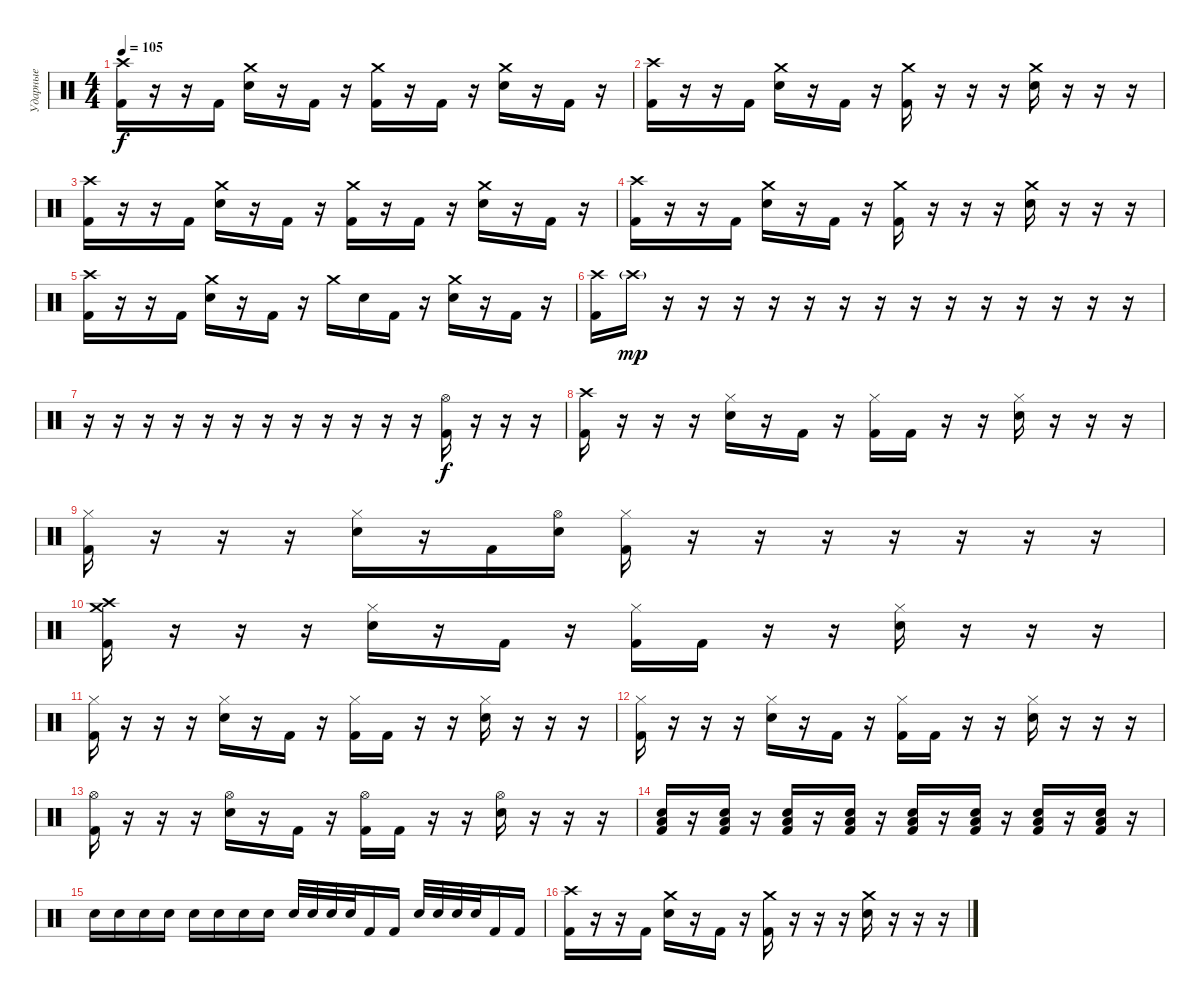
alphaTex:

\track ("Ударные" "Ударные") {instrument percussion}
\staff {score}
\articulation defaults
\ts (4 4)
\tempo 105
\clef neutral
\ks c
("Crash high (hit)" "Kick (hit) 2").16{dy f} r.16 r.16 "Kick (hit) 2".16 ("Crash medium (hit)" "Electric Snare (hit)").16 r.16 "Kick (hit) 2".16 r.16 ("Crash medium (hit)" "Kick (hit) 2").16 r.16 "Kick (hit) 2".16 r.16 ("Crash medium (hit)" "Electric Snare (hit)").16 r.16 "Kick (hit) 2".16 r.16 |
("Crash high (hit)" "Kick (hit) 2").16 r.16 r.16 "Kick (hit) 2".16 ("Crash medium (hit)" "Electric Snare (hit)").16 r.16 "Kick (hit) 2".16 r.16 ("Crash medium (hit)" "Kick (hit) 2").16 r.16 r.16 r.16 ("Crash medium (hit)" "Electric Snare (hit)").16 r.16 r.16 r.16 |
("Crash high (hit)" "Kick (hit) 2").16 r.16 r.16 "Kick (hit) 2".16 ("Crash medium (hit)" "Electric Snare (hit)").16 r.16 "Kick (hit) 2".16 r.16 ("Crash medium (hit)" "Kick (hit) 2").16 r.16 "Kick (hit) 2".16 r.16 ("Crash medium (hit)" "Electric Snare (hit)").16 r.16 "Kick (hit) 2".16 r.16 |
("Crash high (hit)" "Kick (hit) 2").16 r.16 r.16 "Kick (hit) 2".16 ("Crash medium (hit)" "Electric Snare (hit)").16 r.16 "Kick (hit) 2".16 r.16 ("Crash medium (hit)" "Kick (hit) 2").16 r.16 r.16 r.16 ("Crash medium (hit)" "Electric Snare (hit)").16 r.16 r.16 r.16 |
("Crash high (hit)" "Kick (hit) 2").16 r.16 r.16 "Kick (hit) 2".16 ("Crash medium (hit)" "Electric Snare (hit)").16 r.16 "Kick (hit) 2".16 r.16 "Crash medium (hit)".16 "Electric Snare (hit)".16 "Kick (hit) 2".16 r.16 ("Crash medium (hit)" "Electric Snare (hit)").16 r.16 "Kick (hit) 2".16 r.16 |
("Crash high (hit)" "Kick (hit) 2").16 "Crash high (hit)"{g}.16{dy mp} r.16 r.16 r.16 r.16 r.16 r.16 r.16 r.16 r.16 r.16 r.16 r.16 r.16 r.16 |
r.16 r.16 r.16 r.16 r.16 r.16 r.16 r.16 r.16 r.16 r.16 r.16 ("Hi-Hat (open)" "Kick (hit) 2").16{dy f} r.16 r.16 r.16 |
("Crash high (hit)" "Kick (hit) 2").16 r.16 r.16 r.16 ("Hi-Hat (closed)" "Electric Snare (hit)").16 r.16 "Kick (hit) 2".16 r.16 ("Hi-Hat (closed)" "Kick (hit) 2").16 "Kick (hit) 2".16 r.16 r.16 ("Hi-Hat (closed)" "Electric Snare (hit)").16 r.16 r.16 r.16 |
("Hi-Hat (closed)" "Kick (hit) 2").16 r.16 r.16 r.16 ("Hi-Hat (closed)" "Electric Snare (hit)").16 r.16 "Kick (hit) 2".16 ("Hi-Hat (open)" "Electric Snare (hit)").16 ("Hi-Hat (closed)" "Kick (hit) 2").16 r.16 r.16 r.16 r.16 r.16 r.16 r.16 |
("Crash high (hit)" "Kick (hit) 2" "Crash medium (hit)").16 r.16 r.16 r.16 ("Hi-Hat (closed)" "Electric Snare (hit)").16 r.16 "Kick (hit) 2".16 r.16 ("Hi-Hat (closed)" "Kick (hit) 2").16 "Kick (hit) 2".16 r.16 r.16 ("Hi-Hat (closed)" "Electric Snare (hit)").16 r.16 r.16 r.16 |
("Hi-Hat (closed)" "Kick (hit) 2").16 r.16 r.16 r.16 ("Hi-Hat (closed)" "Electric Snare (hit)").16 r.16 "Kick (hit) 2".16 r.16 ("Hi-Hat (closed)" "Kick (hit) 2").16 "Kick (hit) 2".16 r.16 r.16 ("Hi-Hat (closed)" "Electric Snare (hit)").16 r.16 r.16 r.16 |
("Hi-Hat (closed)" "Kick (hit) 2").16 r.16 r.16 r.16 ("Hi-Hat (closed)" "Electric Snare (hit)").16 r.16 "Kick (hit) 2".16 r.16 ("Hi-Hat (closed)" "Kick (hit) 2").16 "Kick (hit) 2".16 r.16 r.16 ("Hi-Hat (closed)" "Electric Snare (hit)").16 r.16 r.16 r.16 |
("Hi-Hat (open)" "Kick (hit) 2").16 r.16 r.16 r.16 ("Hi-Hat (open)" "Electric Snare (hit)").16 r.16 "Kick (hit) 2".16 r.16 ("Hi-Hat (open)" "Kick (hit) 2").16 "Kick (hit) 2".16 r.16 r.16 ("Hi-Hat (open)" "Electric Snare (hit)").16 r.16 r.16 r.16 |
("Electric Snare (hit)" "Low Floor Tom (hit)" "Kick (hit) 2").16 r.16 ("Electric Snare (hit)" "Low Floor Tom (hit)" "Kick (hit) 2").16 r.16 ("Electric Snare (hit)" "Low Floor Tom (hit)" "Kick (hit) 2").16 r.16 ("Electric Snare (hit)" "Low Floor Tom (hit)" "Kick (hit) 2").16 r.16 ("Electric Snare (hit)" "Low Floor Tom (hit)" "Kick (hit) 2").16 r.16 ("Electric Snare (hit)" "Low Floor Tom (hit)" "Kick (hit) 2").16 r.16 ("Electric Snare (hit)" "Low Floor Tom (hit)" "Kick (hit) 2").16 r.16 ("Electric Snare (hit)" "Low Floor Tom (hit)" "Kick (hit) 2").16 r.16 |
"Electric Snare (hit)".16 "Electric Snare (hit)".16 "Electric Snare (hit)".16 "Electric Snare (hit)".16 "Electric Snare (hit)".16 "Electric Snare (hit)".16 "Electric Snare (hit)".16 "Electric Snare (hit)".16 "Electric Snare (hit)".32 "Electric Snare (hit)".32 "Electric Snare (hit)".32 "Electric Snare (hit)".32 "Kick (hit) 2".16 "Kick (hit) 2".16 "Electric Snare (hit)".32 "Electric Snare (hit)".32 "Electric Snare (hit)".32 "Electric Snare (hit)".32 "Kick (hit) 2".16 "Kick (hit) 2".16 |
("Crash high (hit)" "Kick (hit) 2").16 r.16 r.16 "Kick (hit) 2".16 ("Crash medium (hit)" "Electric Snare (hit)").16 r.16 "Kick (hit) 2".16 r.16 ("Crash medium (hit)" "Kick (hit) 2").16 r.16 r.16 r.16 ("Crash medium (hit)" "Electric Snare (hit)").16 r.16 r.16 r.16
